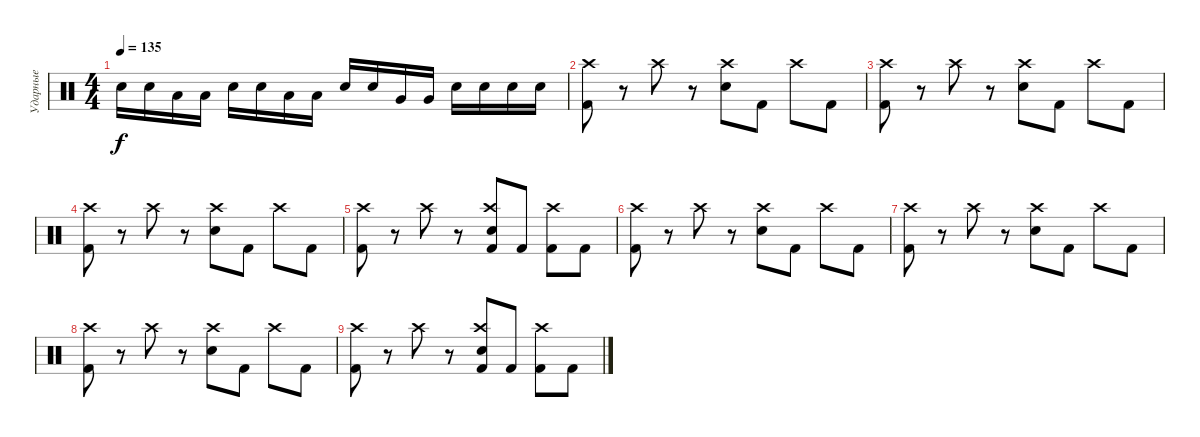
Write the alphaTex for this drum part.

\track ("Ударные" "Ударные") {instrument percussion}
\staff {score}
\articulation defaults
\ts (4 4)
\tempo 135
\clef neutral
\ks c "Electric Snare (hit)".16{dy f} "Electric Snare (hit)".16 "Low Tom (hit)".16 "Low Tom (hit)".16 "Electric Snare (hit)".16 "Electric Snare (hit)".16 "Low Tom (hit)".16 "Low Tom (hit)".16 "Electric Snare (hit)".16 "Electric Snare (hit)".16 "Very Low Tom (hit)".16 "Very Low Tom (hit)".16 "Electric Snare (hit)".16 "Electric Snare (hit)".16 "Electric Snare (hit)".16 "Electric Snare (hit)".16
|
("Crash high (hit)" "Kick (hit) 2").8 r.8 "Crash high (hit)".8 r.8 ("Crash high (hit)" "Electric Snare (hit)").8 "Kick (hit) 2".8 "Crash high (hit)".8 "Kick (hit) 2".8 |
("Crash high (hit)" "Kick (hit) 2").8 r.8 "Crash high (hit)".8 r.8 ("Crash high (hit)" "Electric Snare (hit)").8 "Kick (hit) 2".8 "Crash high (hit)".8 "Kick (hit) 2".8 |
("Crash high (hit)" "Kick (hit) 2").8 r.8 "Crash high (hit)".8 r.8 ("Crash high (hit)" "Electric Snare (hit)").8 "Kick (hit) 2".8 "Crash high (hit)".8 "Kick (hit) 2".8 |
("Crash high (hit)" "Kick (hit) 2").8 r.8 "Crash high (hit)".8 r.8 ("Crash high (hit)" "Electric Snare (hit)" "Kick (hit) 2").8 "Kick (hit) 2".8 ("Crash high (hit)" "Kick (hit) 2").8 "Kick (hit) 2".8 |
("Crash high (hit)" "Kick (hit) 2").8 r.8 "Crash high (hit)".8 r.8 ("Crash high (hit)" "Electric Snare (hit)").8 "Kick (hit) 2".8 "Crash high (hit)".8 "Kick (hit) 2".8 |
("Crash high (hit)" "Kick (hit) 2").8 r.8 "Crash high (hit)".8 r.8 ("Crash high (hit)" "Electric Snare (hit)").8 "Kick (hit) 2".8 "Crash high (hit)".8 "Kick (hit) 2".8 |
("Crash high (hit)" "Kick (hit) 2").8 r.8 "Crash high (hit)".8 r.8 ("Crash high (hit)" "Electric Snare (hit)").8 "Kick (hit) 2".8 "Crash high (hit)".8 "Kick (hit) 2".8 |
("Crash high (hit)" "Kick (hit) 2").8 r.8 "Crash high (hit)".8 r.8 ("Crash high (hit)" "Electric Snare (hit)" "Kick (hit) 2").8 "Kick (hit) 2".8 ("Crash high (hit)" "Kick (hit) 2").8 "Kick (hit) 2".8
